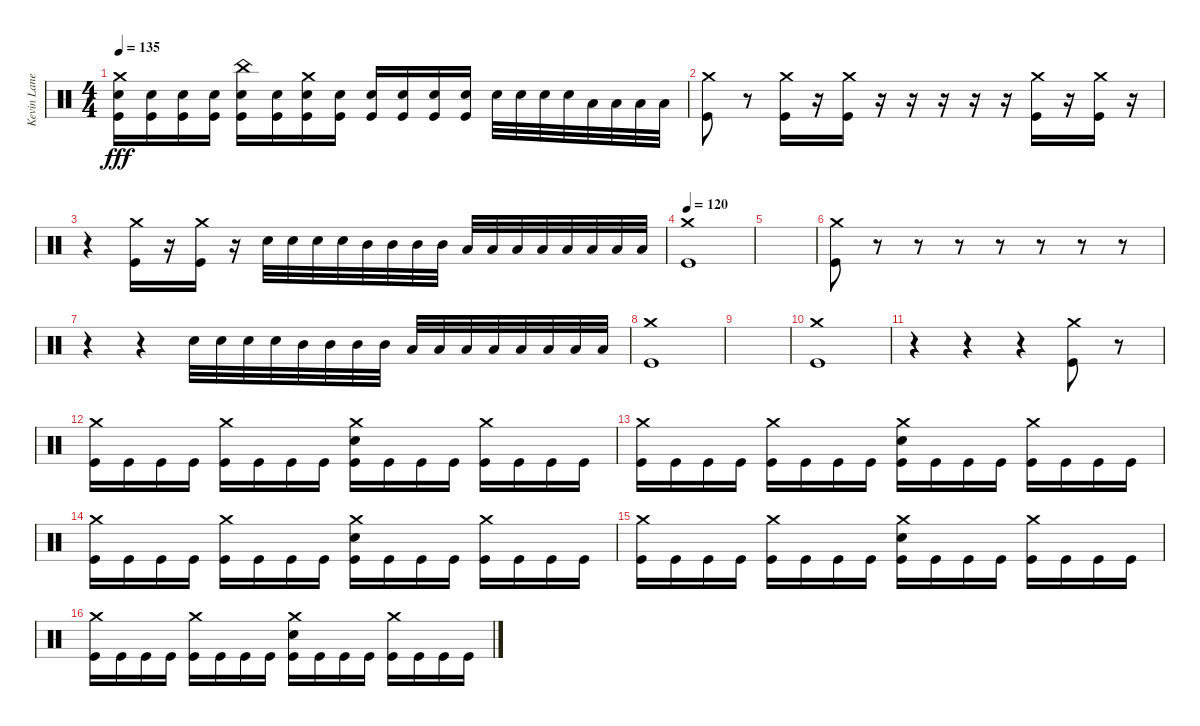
\track ("Kevin Lane" "Kevin Lane") {instrument percussion}
\staff {score}
\articulation defaults
\ts (4 4)
\tempo 135
\clef neutral
\ks c
("Crash medium (hit)" "Snare (hit) 2" "Kick (hit)").16{dy fff} ("Snare (hit) 2" "Kick (hit)").16 ("Snare (hit) 2" "Kick (hit)").16 ("Snare (hit) 2" "Kick (hit)").16 ("China (hit)" "Snare (hit) 2" "Kick (hit)").16 ("Snare (hit) 2" "Kick (hit)").16 ("Crash medium (hit)" "Snare (hit) 2" "Kick (hit)").16 ("Snare (hit) 2" "Kick (hit)").16 ("Snare (hit) 2" "Kick (hit)").16 ("Snare (hit) 2" "Kick (hit)").16 ("Snare (hit) 2" "Kick (hit)").16 ("Snare (hit) 2" "Kick (hit)").16 "Snare (hit) 2".32 "Snare (hit) 2".32 "Snare (hit) 2".32 "Snare (hit) 2".32 "Low Tom (hit)".32 "Low Tom (hit)".32 "Low Tom (hit)".32 "Low Tom (hit)".32 |
("Crash medium (hit)" "Kick (hit)").8{volume 13} r.8{volume 0} ("Crash medium (hit)" "Kick (hit)").16{volume 13} r.16{volume 0} ("Crash medium (hit)" "Kick (hit)").16{volume 13} r.16{volume 0} r.16 r.16 r.16 r.16 ("Crash medium (hit)" "Kick (hit)").16{volume 13} r.16{volume 0} ("Crash medium (hit)" "Kick (hit)").16{volume 13} r.16{volume 0} |
r.4 ("Crash medium (hit)" "Kick (hit)").16{volume 13} r.16{volume 0} ("Crash medium (hit)" "Kick (hit)").16{volume 13} r.16{volume 0} "Snare (hit) 2".32{volume 13} "Snare (hit) 2".32 "Snare (hit) 2".32 "Snare (hit) 2".32 "Mid Tom (hit)".32 "Mid Tom (hit)".32 "Mid Tom (hit)".32 "Mid Tom (hit)".32 "Low Tom (hit)".32 "Low Tom (hit)".32 "Low Tom (hit)".32 "Low Tom (hit)".32 "Low Floor Tom (hit)".32 "Low Floor Tom (hit)".32 "Low Floor Tom (hit)".32 "Low Floor Tom (hit)".32 |
\tempo 120
("Crash medium (hit)" "Kick (hit)").1 |
|
("Crash medium (hit)" "Kick (hit)").8{volume 13} r.8{volume 0} r.8 r.8 r.8 r.8 r.8 r.8 |
r.4 r.4 "Snare (hit) 2".32{volume 13} "Snare (hit) 2".32 "Snare (hit) 2".32 "Snare (hit) 2".32 "Mid Tom (hit)".32 "Mid Tom (hit)".32 "Mid Tom (hit)".32 "Mid Tom (hit)".32 "Low Tom (hit)".32 "Low Tom (hit)".32 "Low Tom (hit)".32 "Low Tom (hit)".32 "Low Floor Tom (hit)".32 "Low Floor Tom (hit)".32 "Low Floor Tom (hit)".32 "Low Floor Tom (hit)".32 |
("Crash medium (hit)" "Kick (hit)").1 |
|
("Crash medium (hit)" "Kick (hit)").1 |
r.4 r.4 r.4 ("Crash medium (hit)" "Kick (hit)").8{volume 13} r.8{volume 0} |
("Crash medium (hit)" "Kick (hit)").16{volume 13} "Kick (hit)".16 "Kick (hit)".16 "Kick (hit)".16 ("Crash medium (hit)" "Kick (hit)").16 "Kick (hit)".16 "Kick (hit)".16 "Kick (hit)".16 ("Crash medium (hit)" "Snare (hit) 2" "Kick (hit)").16 "Kick (hit)".16 "Kick (hit)".16 "Kick (hit)".16 ("Crash medium (hit)" "Kick (hit)").16 "Kick (hit)".16 "Kick (hit)".16 "Kick (hit)".16 |
("Crash medium (hit)" "Kick (hit)").16 "Kick (hit)".16 "Kick (hit)".16 "Kick (hit)".16 ("Crash medium (hit)" "Kick (hit)").16 "Kick (hit)".16 "Kick (hit)".16 "Kick (hit)".16 ("Crash medium (hit)" "Snare (hit) 2" "Kick (hit)").16 "Kick (hit)".16 "Kick (hit)".16 "Kick (hit)".16 ("Crash medium (hit)" "Kick (hit)").16 "Kick (hit)".16 "Kick (hit)".16 "Kick (hit)".16 |
("Crash medium (hit)" "Kick (hit)").16 "Kick (hit)".16 "Kick (hit)".16 "Kick (hit)".16 ("Crash medium (hit)" "Kick (hit)").16 "Kick (hit)".16 "Kick (hit)".16 "Kick (hit)".16 ("Crash medium (hit)" "Snare (hit) 2" "Kick (hit)").16 "Kick (hit)".16 "Kick (hit)".16 "Kick (hit)".16 ("Crash medium (hit)" "Kick (hit)").16 "Kick (hit)".16 "Kick (hit)".16 "Kick (hit)".16 |
("Crash medium (hit)" "Kick (hit)").16 "Kick (hit)".16 "Kick (hit)".16 "Kick (hit)".16 ("Crash medium (hit)" "Kick (hit)").16 "Kick (hit)".16 "Kick (hit)".16 "Kick (hit)".16 ("Crash medium (hit)" "Snare (hit) 2" "Kick (hit)").16 "Kick (hit)".16 "Kick (hit)".16 "Kick (hit)".16 ("Crash medium (hit)" "Kick (hit)").16 "Kick (hit)".16 "Kick (hit)".16 "Kick (hit)".16 |
("Crash medium (hit)" "Kick (hit)").16 "Kick (hit)".16 "Kick (hit)".16 "Kick (hit)".16 ("Crash medium (hit)" "Kick (hit)").16 "Kick (hit)".16 "Kick (hit)".16 "Kick (hit)".16 ("Crash medium (hit)" "Snare (hit) 2" "Kick (hit)").16 "Kick (hit)".16 "Kick (hit)".16 "Kick (hit)".16 ("Crash medium (hit)" "Kick (hit)").16 "Kick (hit)".16 "Kick (hit)".16 "Kick (hit)".16
